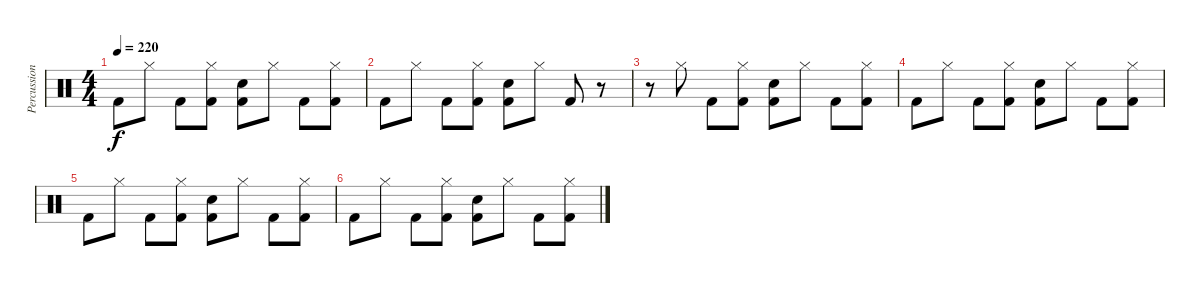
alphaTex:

\track ("Percussion" "Percussion") {instrument percussion}
\staff {score}
\articulation defaults
\ts (4 4)
\tempo 220
\clef neutral
\ks c "Kick (hit) 2".8{dy f} "Hi-Hat (closed)".8 "Kick (hit) 2".8
("Hi-Hat (closed)" "Kick (hit) 2").8 ("Snare (hit) 2" "Kick (hit) 2").8 "Hi-Hat (closed)".8 "Kick (hit) 2".8 ("Hi-Hat (closed)" "Kick (hit) 2").8 |
"Kick (hit) 2".8 "Hi-Hat (closed)".8 "Kick (hit) 2".8 ("Hi-Hat (closed)" "Kick (hit) 2").8 ("Snare (hit) 2" "Kick (hit) 2").8 "Hi-Hat (closed)".8 "Kick (hit) 2".8 r.8 |
r.8 "Hi-Hat (closed)".8 "Kick (hit) 2".8 ("Hi-Hat (closed)" "Kick (hit) 2").8 ("Snare (hit) 2" "Kick (hit) 2").8 "Hi-Hat (closed)".8 "Kick (hit) 2".8 ("Hi-Hat (closed)" "Kick (hit) 2").8 |
"Kick (hit) 2".8 "Hi-Hat (closed)".8 "Kick (hit) 2".8 ("Hi-Hat (closed)" "Kick (hit) 2").8 ("Snare (hit) 2" "Kick (hit) 2").8 "Hi-Hat (closed)".8 "Kick (hit) 2".8 ("Hi-Hat (closed)" "Kick (hit) 2").8 |
"Kick (hit) 2".8 "Hi-Hat (closed)".8 "Kick (hit) 2".8 ("Hi-Hat (closed)" "Kick (hit) 2").8 ("Snare (hit) 2" "Kick (hit) 2").8 "Hi-Hat (closed)".8 "Kick (hit) 2".8 ("Hi-Hat (closed)" "Kick (hit) 2").8 |
"Kick (hit) 2".8 "Hi-Hat (closed)".8 "Kick (hit) 2".8 ("Hi-Hat (closed)" "Kick (hit) 2").8 ("Snare (hit) 2" "Kick (hit) 2").8 "Hi-Hat (closed)".8 "Kick (hit) 2".8 ("Hi-Hat (closed)" "Kick (hit) 2").8
